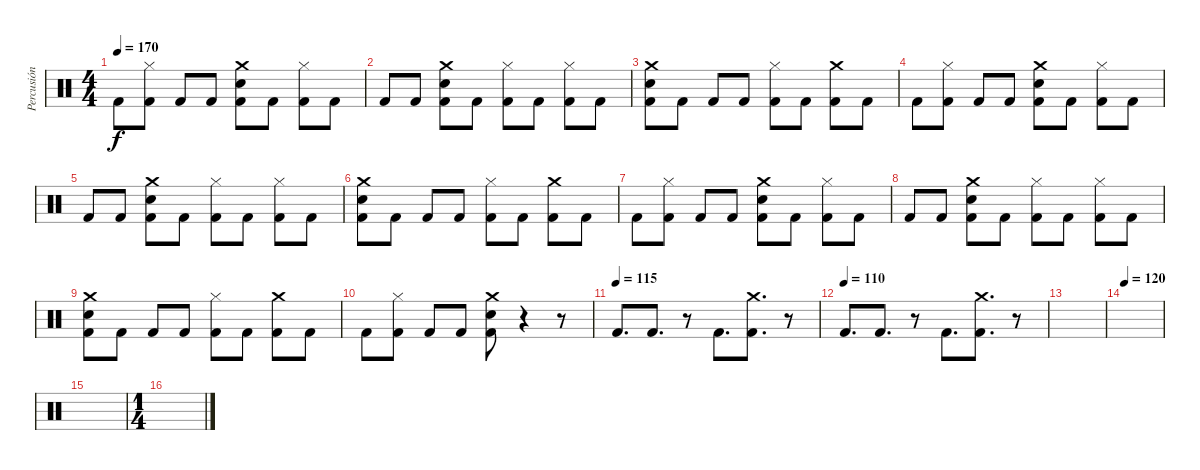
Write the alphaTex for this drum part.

\track ("Percusión" "Percusión") {instrument percussion}
\staff {score}
\articulation defaults
\ts (4 4)
\tempo 170
\clef neutral
\ks c "Kick (hit) 2".8{dy f}
("Hi-Hat (closed)" "Kick (hit) 2").8 "Kick (hit) 2".8 "Kick (hit) 2".8 ("Snare (hit) 2" "Crash medium (hit)" "Kick (hit) 2").8 "Kick (hit) 2".8 ("Hi-Hat (closed)" "Kick (hit) 2").8 "Kick (hit) 2".8 |
"Kick (hit) 2".8 "Kick (hit) 2".8 ("Snare (hit) 2" "Crash medium (hit)" "Kick (hit) 2").8 "Kick (hit) 2".8 ("Hi-Hat (closed)" "Kick (hit) 2").8 "Kick (hit) 2".8 ("Hi-Hat (closed)" "Kick (hit) 2").8 "Kick (hit) 2".8 |
("Snare (hit) 2" "Crash medium (hit)" "Kick (hit) 2").8 "Kick (hit) 2".8 "Kick (hit) 2".8 "Kick (hit) 2".8 ("Hi-Hat (closed)" "Kick (hit) 2").8 "Kick (hit) 2".8 ("Crash medium (hit)" "Kick (hit) 2").8 "Kick (hit) 2".8 |
"Kick (hit) 2".8 ("Hi-Hat (closed)" "Kick (hit) 2").8 "Kick (hit) 2".8 "Kick (hit) 2".8 ("Snare (hit) 2" "Crash medium (hit)" "Kick (hit) 2").8 "Kick (hit) 2".8 ("Hi-Hat (closed)" "Kick (hit) 2").8 "Kick (hit) 2".8 |
"Kick (hit) 2".8 "Kick (hit) 2".8 ("Snare (hit) 2" "Crash medium (hit)" "Kick (hit) 2").8 "Kick (hit) 2".8 ("Hi-Hat (closed)" "Kick (hit) 2").8 "Kick (hit) 2".8 ("Hi-Hat (closed)" "Kick (hit) 2").8 "Kick (hit) 2".8 |
("Snare (hit) 2" "Crash medium (hit)" "Kick (hit) 2").8 "Kick (hit) 2".8 "Kick (hit) 2".8 "Kick (hit) 2".8 ("Hi-Hat (closed)" "Kick (hit) 2").8 "Kick (hit) 2".8 ("Crash medium (hit)" "Kick (hit) 2").8 "Kick (hit) 2".8 |
"Kick (hit) 2".8 ("Hi-Hat (closed)" "Kick (hit) 2").8 "Kick (hit) 2".8 "Kick (hit) 2".8 ("Snare (hit) 2" "Crash medium (hit)" "Kick (hit) 2").8 "Kick (hit) 2".8 ("Hi-Hat (closed)" "Kick (hit) 2").8 "Kick (hit) 2".8 |
"Kick (hit) 2".8 "Kick (hit) 2".8 ("Snare (hit) 2" "Crash medium (hit)" "Kick (hit) 2").8 "Kick (hit) 2".8 ("Hi-Hat (closed)" "Kick (hit) 2").8 "Kick (hit) 2".8 ("Hi-Hat (closed)" "Kick (hit) 2").8 "Kick (hit) 2".8 |
("Snare (hit) 2" "Crash medium (hit)" "Kick (hit) 2").8 "Kick (hit) 2".8 "Kick (hit) 2".8 "Kick (hit) 2".8 ("Hi-Hat (closed)" "Kick (hit) 2").8 "Kick (hit) 2".8 ("Crash medium (hit)" "Kick (hit) 2").8 "Kick (hit) 2".8 |
"Kick (hit) 2".8 ("Hi-Hat (closed)" "Kick (hit) 2").8 "Kick (hit) 2".8 "Kick (hit) 2".8 ("Snare (hit) 2" "Crash medium (hit)" "Kick (hit) 2").8 r.4 r.8 |
\tempo 110
\tempo (115)
"Kick (hit) 2".8{d} "Kick (hit) 2".8{d} r.8 "Kick (hit) 2".8{d} ("Crash medium (hit)" "Kick (hit) 2").8{d} r.8 |
\tempo (110)
"Kick (hit) 2".8{d} "Kick (hit) 2".8{d} r.8 "Kick (hit) 2".8{d} ("Crash medium (hit)" "Kick (hit) 2").8{d} r.8 |
|
\tempo 120
|
|
\ts (1 4)
